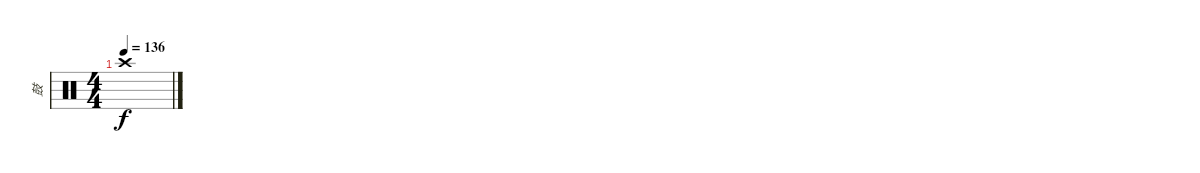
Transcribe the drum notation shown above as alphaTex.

\track ("鼓" "鼓") {instrument percussion}
\staff {score}
\articulation defaults
\ts (4 4)
\tempo 136
\clef neutral
\ks c "Crash high (hit)".1{dy f}
